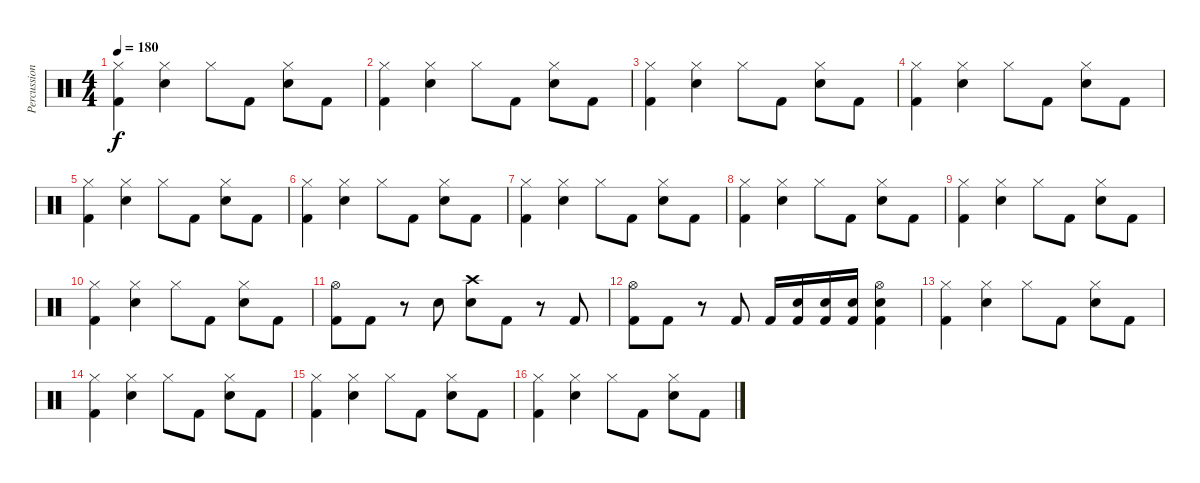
\track ("Percussion" "Percussion") {instrument percussion}
\staff {score}
\articulation defaults
\ts (4 4)
\tempo 180
\clef neutral
\ks c
("Hi-Hat (closed)" "Kick (hit) 2").4{dy f} ("Hi-Hat (closed)" "Snare (hit) 2").4 "Hi-Hat (closed)".8 "Kick (hit) 2".8 ("Hi-Hat (closed)" "Snare (hit) 2").8 "Kick (hit) 2".8 |
("Hi-Hat (closed)" "Kick (hit) 2").4 ("Hi-Hat (closed)" "Snare (hit) 2").4 "Hi-Hat (closed)".8 "Kick (hit) 2".8 ("Hi-Hat (closed)" "Snare (hit) 2").8 "Kick (hit) 2".8 |
("Hi-Hat (closed)" "Kick (hit) 2").4 ("Hi-Hat (closed)" "Snare (hit) 2").4 "Hi-Hat (closed)".8 "Kick (hit) 2".8 ("Hi-Hat (closed)" "Snare (hit) 2").8 "Kick (hit) 2".8 |
("Hi-Hat (closed)" "Kick (hit) 2").4 ("Hi-Hat (closed)" "Snare (hit) 2").4 "Hi-Hat (closed)".8 "Kick (hit) 2".8 ("Hi-Hat (closed)" "Snare (hit) 2").8 "Kick (hit) 2".8 |
("Hi-Hat (closed)" "Kick (hit) 2").4 ("Hi-Hat (closed)" "Snare (hit) 2").4 "Hi-Hat (closed)".8 "Kick (hit) 2".8 ("Hi-Hat (closed)" "Snare (hit) 2").8 "Kick (hit) 2".8 |
("Hi-Hat (closed)" "Kick (hit) 2").4 ("Hi-Hat (closed)" "Snare (hit) 2").4 "Hi-Hat (closed)".8 "Kick (hit) 2".8 ("Hi-Hat (closed)" "Snare (hit) 2").8 "Kick (hit) 2".8 |
("Hi-Hat (closed)" "Kick (hit) 2").4 ("Hi-Hat (closed)" "Snare (hit) 2").4 "Hi-Hat (closed)".8 "Kick (hit) 2".8 ("Hi-Hat (closed)" "Snare (hit) 2").8 "Kick (hit) 2".8 |
("Hi-Hat (closed)" "Kick (hit) 2").4 ("Hi-Hat (closed)" "Snare (hit) 2").4 "Hi-Hat (closed)".8 "Kick (hit) 2".8 ("Hi-Hat (closed)" "Snare (hit) 2").8 "Kick (hit) 2".8 |
("Hi-Hat (closed)" "Kick (hit) 2").4 ("Hi-Hat (closed)" "Snare (hit) 2").4 "Hi-Hat (closed)".8 "Kick (hit) 2".8 ("Hi-Hat (closed)" "Snare (hit) 2").8 "Kick (hit) 2".8 |
("Hi-Hat (closed)" "Kick (hit) 2").4 ("Hi-Hat (closed)" "Snare (hit) 2").4 "Hi-Hat (closed)".8 "Kick (hit) 2".8 ("Hi-Hat (closed)" "Snare (hit) 2").8 "Kick (hit) 2".8 |
("Hi-Hat (open)" "Kick (hit) 2").8 "Kick (hit) 2".8 r.8 "Snare (hit) 2".8 ("Crash high (hit)" "Snare (hit) 2").8 "Kick (hit) 2".8 r.8 "Kick (hit) 2".8 |
("Hi-Hat (open)" "Kick (hit) 2").8 "Kick (hit) 2".8 r.8 "Kick (hit) 2".8 "Kick (hit) 2".16 ("Snare (hit) 2" "Kick (hit) 2").16 ("Snare (hit) 2" "Kick (hit) 2").16 ("Snare (hit) 2" "Kick (hit) 2").16 ("Hi-Hat (open)" "Snare (hit) 2" "Kick (hit) 2").4 |
("Hi-Hat (closed)" "Kick (hit) 2").4 ("Hi-Hat (closed)" "Snare (hit) 2").4 "Hi-Hat (closed)".8 "Kick (hit) 2".8 ("Hi-Hat (closed)" "Snare (hit) 2").8 "Kick (hit) 2".8 |
("Hi-Hat (closed)" "Kick (hit) 2").4 ("Hi-Hat (closed)" "Snare (hit) 2").4 "Hi-Hat (closed)".8 "Kick (hit) 2".8 ("Hi-Hat (closed)" "Snare (hit) 2").8 "Kick (hit) 2".8 |
("Hi-Hat (closed)" "Kick (hit) 2").4 ("Hi-Hat (closed)" "Snare (hit) 2").4 "Hi-Hat (closed)".8 "Kick (hit) 2".8 ("Hi-Hat (closed)" "Snare (hit) 2").8 "Kick (hit) 2".8 |
("Hi-Hat (closed)" "Kick (hit) 2").4 ("Hi-Hat (closed)" "Snare (hit) 2").4 "Hi-Hat (closed)".8 "Kick (hit) 2".8 ("Hi-Hat (closed)" "Snare (hit) 2").8 "Kick (hit) 2".8
